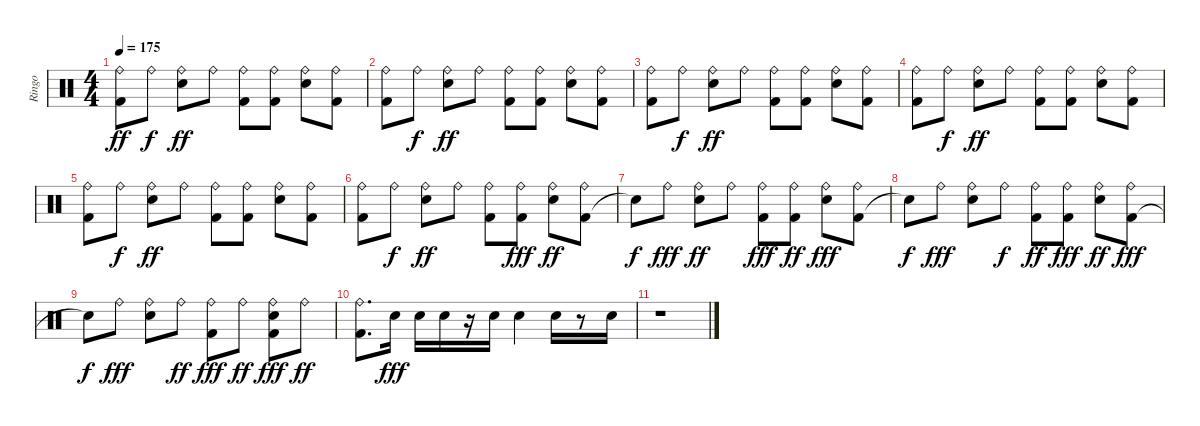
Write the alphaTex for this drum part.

\track ("Ringo" "Ringo") {instrument percussion}
\staff {score}
\articulation defaults
\ts (4 4)
\tempo 175
\clef neutral
\ks c
("Kick (hit) 2" "Ride (bell)").8{dy ff} "Ride (bell)".8{dy f volume 10} ("Snare (hit) 2" "Ride (bell)").8{dy ff volume 9} "Ride (bell)".8{volume 9} ("Kick (hit) 2" "Ride (bell)").8{volume 9} ("Ride (bell)" "Kick (hit) 2").8{volume 9} ("Snare (hit) 2" "Ride (bell)").8{volume 9} ("Ride (bell)" "Kick (hit) 2").8 |
("Kick (hit) 2" "Ride (bell)").8{volume 9} "Ride (bell)".8{dy f volume 9} ("Snare (hit) 2" "Ride (bell)").8{dy ff volume 8} "Ride (bell)".8{volume 8} ("Kick (hit) 2" "Ride (bell)").8{volume 8} ("Ride (bell)" "Kick (hit) 2").8{volume 8} ("Snare (hit) 2" "Ride (bell)").8 ("Ride (bell)" "Kick (hit) 2").8{volume 8} |
("Kick (hit) 2" "Ride (bell)").8{volume 8} "Ride (bell)".8{dy f volume 8} ("Snare (hit) 2" "Ride (bell)").8{dy ff volume 8} "Ride (bell)".8{volume 8} ("Kick (hit) 2" "Ride (bell)").8{volume 7} ("Ride (bell)" "Kick (hit) 2").8{volume 7} ("Snare (hit) 2" "Ride (bell)").8 ("Ride (bell)" "Kick (hit) 2").8{volume 7} |
("Kick (hit) 2" "Ride (bell)").8{volume 7} "Ride (bell)".8{dy f volume 7} ("Snare (hit) 2" "Ride (bell)").8{dy ff volume 7} "Ride (bell)".8{volume 7} ("Kick (hit) 2" "Ride (bell)").8{volume 6} ("Ride (bell)" "Kick (hit) 2").8 ("Snare (hit) 2" "Ride (bell)").8{volume 6} ("Ride (bell)" "Kick (hit) 2").8{volume 6} |
("Kick (hit) 2" "Ride (bell)").8{volume 6} "Ride (bell)".8{dy f volume 6} ("Snare (hit) 2" "Ride (bell)").8{dy ff volume 6} "Ride (bell)".8{volume 6} ("Kick (hit) 2" "Ride (bell)").8{volume 6} ("Ride (bell)" "Kick (hit) 2").8 ("Snare (hit) 2" "Ride (bell)").8{volume 6} ("Ride (bell)" "Kick (hit) 2").8{volume 5} |
("Kick (hit) 2" "Ride (bell)").8{volume 5} "Ride (bell)".8{dy f volume 5} ("Snare (hit) 2" "Ride (bell)").8{dy ff volume 5} "Ride (bell)".8{volume 5} ("Kick (hit) 2" "Ride (bell)").8 ("Ride (bell)" "Kick (hit) 2").8{dy fff volume 5} ("Snare (hit) 2" "Ride (bell)").8{dy ff volume 5} ("Kick (hit) 2" "Ride (bell)").8{volume 4} |
"Snare (hit)"{t}.8{dy f} "Ride (bell)".8{dy fff volume 4} ("Snare (hit) 2" "Ride (bell)").8{dy ff volume 4} "Ride (bell)".8{volume 4} ("Ride (bell)" "Kick (hit) 2").8{dy fff} ("Ride (bell)" "Kick (hit) 2").8{dy ff volume 4} ("Ride (bell)" "Snare (hit) 2").8{dy fff volume 4} ("Kick (hit) 2" "Ride (bell)").8{volume 4} |
"Snare (hit)"{t}.8{dy f} "Ride (bell)".8{dy fff volume 3} ("Ride (bell)" "Snare (hit) 2").8{volume 3} "Ride (bell)".8{dy f} ("Kick (hit) 2" "Ride (bell)").8{dy ff volume 3} ("Ride (bell)" "Kick (hit) 2").8{dy fff volume 3} ("Snare (hit) 2" "Ride (bell)").8{dy ff volume 3} ("Kick (hit) 2" "Ride (bell)").8{dy fff volume 3} |
"Snare (hit)"{t}.8{dy f} "Ride (bell)".8{dy fff volume 2} ("Ride (bell)" "Snare (hit) 2").8{volume 2} "Ride (bell)".8{dy ff} ("Ride (bell)" "Kick (hit) 2").8{dy fff volume 2} "Ride (bell)".8{dy ff volume 2} ("Ride (bell)" "Snare (hit) 2" "Kick (hit) 2").8{dy fff volume 2} "Ride (bell)".8{dy ff volume 2} |
("Kick (hit) 2" "Ride (bell)").8{d volume 2} "Snare (hit) 2".16{dy fff volume 2} "Snare (hit) 2".16 "Snare (hit) 2".16{volume 2} r.16 "Snare (hit) 2".16{volume 1} "Snare (hit) 2".4 "Snare (hit) 2".16{volume 1} r.8 "Snare (hit) 2".16{volume 1} |
r.1
